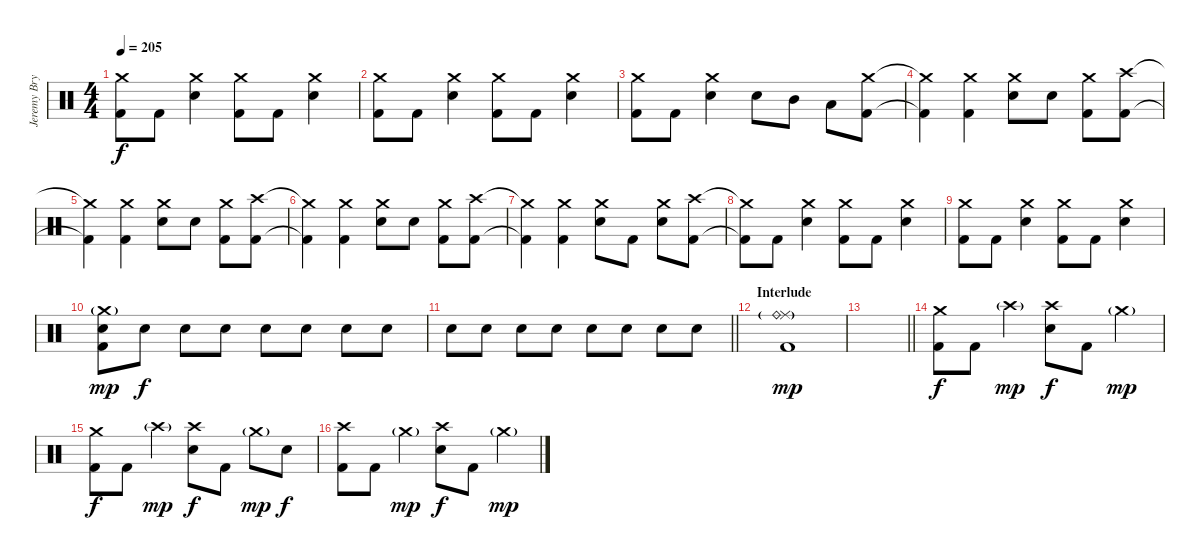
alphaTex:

\track ("Jeremy Bryan - Drums" "Jeremy Bry") {instrument percussion}
\staff {score}
\articulation defaults
\ts (4 4)
\tempo 205
\clef neutral
\ks c
("Crash medium (hit)" "Kick (hit) 2").8{dy f} "Kick (hit) 2".8 ("Crash medium (hit)" "Electric Snare (hit)").4 ("Crash medium (hit)" "Kick (hit) 2").8 "Kick (hit) 2".8 ("Crash medium (hit)" "Electric Snare (hit)").4 |
("Crash medium (hit)" "Kick (hit) 2").8 "Kick (hit) 2".8 ("Crash medium (hit)" "Electric Snare (hit)").4 ("Crash medium (hit)" "Kick (hit) 2").8 "Kick (hit) 2".8 ("Crash medium (hit)" "Electric Snare (hit)").4 |
("Crash medium (hit)" "Kick (hit) 2").8 "Kick (hit) 2".8 ("Crash medium (hit)" "Electric Snare (hit)").4 "Electric Snare (hit)".8 "Mid Tom (hit)".8 "Low Tom (hit)".8 ("Crash medium (hit)" "Kick (hit) 2").8 |
("Crash medium (hit)"{t} "Kick (hit) 2"{t}).4 ("Crash medium (hit)" "Kick (hit) 2").4 ("Crash medium (hit)" "Electric Snare (hit)").8 "Electric Snare (hit)".8 ("Crash medium (hit)" "Kick (hit) 2").8 ("Crash high (hit)" "Kick (hit) 2").8 |
("Crash medium (hit)"{t} "Kick (hit) 2"{t}).4 ("Crash medium (hit)" "Kick (hit) 2").4 ("Crash medium (hit)" "Electric Snare (hit)").8 "Electric Snare (hit)".8 ("Crash medium (hit)" "Kick (hit) 2").8 ("Crash high (hit)" "Kick (hit) 2").8 |
("Crash medium (hit)"{t} "Kick (hit) 2"{t}).4 ("Crash medium (hit)" "Kick (hit) 2").4 ("Crash medium (hit)" "Electric Snare (hit)").8 "Electric Snare (hit)".8 ("Crash medium (hit)" "Kick (hit) 2").8 ("Crash high (hit)" "Kick (hit) 2").8 |
("Crash medium (hit)"{t} "Kick (hit) 2"{t}).4 ("Crash medium (hit)" "Kick (hit) 2").4 ("Crash medium (hit)" "Electric Snare (hit)").8 "Kick (hit) 2".8 ("Crash medium (hit)" "Electric Snare (hit)").8 ("Crash high (hit)" "Kick (hit) 2").8 |
("Crash medium (hit)"{t} "Kick (hit) 2"{t}).8 "Kick (hit) 2".8 ("Crash medium (hit)" "Electric Snare (hit)").4 ("Crash medium (hit)" "Kick (hit) 2").8 "Kick (hit) 2".8 ("Crash medium (hit)" "Electric Snare (hit)").4 |
("Crash medium (hit)" "Kick (hit) 2").8 "Kick (hit) 2".8 ("Crash medium (hit)" "Electric Snare (hit)").4 ("Crash medium (hit)" "Kick (hit) 2").8 "Kick (hit) 2".8 ("Crash medium (hit)" "Electric Snare (hit)").4 |
("Crash medium (hit)"{g} "Electric Snare (hit)" "Kick (hit) 2").8{dy mp} "Electric Snare (hit)".8{dy f volume 6} "Electric Snare (hit)".8{volume 12} "Electric Snare (hit)".8 "Electric Snare (hit)".8 "Electric Snare (hit)".8 "Electric Snare (hit)".8 "Electric Snare (hit)".8 |
\barLineRight lightlight "Electric Snare (hit)".8 "Electric Snare (hit)".8 "Electric Snare (hit)".8 "Electric Snare (hit)".8 "Electric Snare (hit)".8 "Electric Snare (hit)".8 "Electric Snare (hit)".8 "Electric Snare (hit)".8
|
\section ("" "Interlude")
("Ride (middle)" "Ride (bell)"{g} "Kick (hit) 2").1{dy mp} |
\barLineRight lightlight
|
("Crash medium (hit)" "Kick (hit) 2").8{dy f} "Kick (hit) 2".8 "Crash high (hit)"{g}.4{dy mp} ("Crash high (hit)" "Electric Snare (hit)").8{dy f} "Kick (hit) 2".8 "Crash medium (hit)"{g}.4{dy mp} |
("Crash medium (hit)" "Kick (hit) 2").8{dy f} "Kick (hit) 2".8 "Crash high (hit)"{g}.4{dy mp} ("Crash high (hit)" "Electric Snare (hit)").8{dy f} "Kick (hit) 2".8 "Crash medium (hit)"{g}.8{dy mp} "Electric Snare (hit)".8{dy f} |
("Crash high (hit)" "Kick (hit) 2").8 "Kick (hit) 2".8 "Crash medium (hit)"{g}.4{dy mp} ("Crash high (hit)" "Electric Snare (hit)").8{dy f} "Kick (hit) 2".8 "Crash medium (hit)"{g}.4{dy mp}
